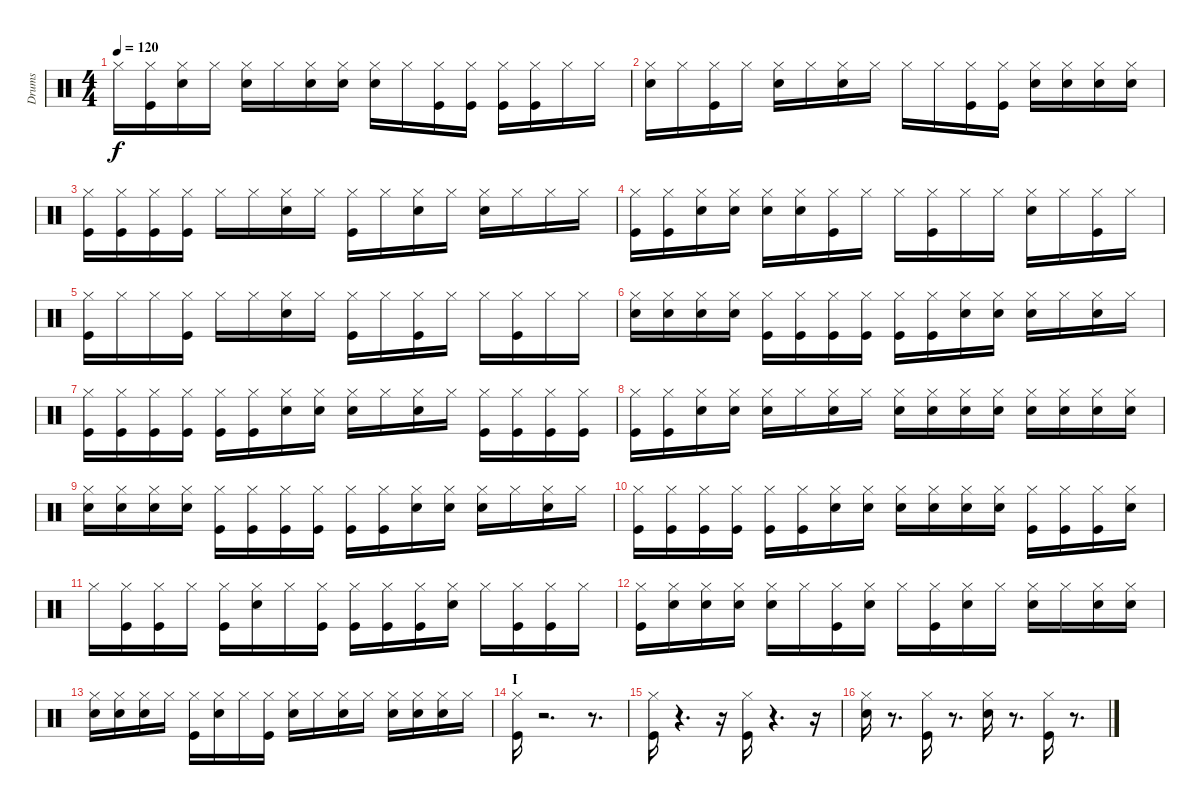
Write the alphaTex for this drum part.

\track ("Drums" "Drums") {instrument percussion}
\staff {score}
\articulation defaults
\ts (4 4)
\tempo 120
\clef neutral
\ks c "Hi-Hat (closed)".16{dy f}
("Kick (hit)" "Hi-Hat (closed)").16 ("Snare (hit) 2" "Hi-Hat (closed)").16 "Hi-Hat (closed)".16 ("Snare (hit) 2" "Hi-Hat (closed)").16 "Hi-Hat (closed)".16 ("Snare (hit) 2" "Hi-Hat (closed)").16 ("Snare (hit) 2" "Hi-Hat (closed)").16 ("Snare (hit) 2" "Hi-Hat (closed)").16 "Hi-Hat (closed)".16 ("Kick (hit)" "Hi-Hat (closed)").16 ("Kick (hit)" "Hi-Hat (closed)").16 ("Kick (hit)" "Hi-Hat (closed)").16 ("Kick (hit)" "Hi-Hat (closed)").16 "Hi-Hat (closed)".16 "Hi-Hat (closed)".16 |
("Snare (hit) 2" "Hi-Hat (closed)").16 "Hi-Hat (closed)".16 ("Kick (hit)" "Hi-Hat (closed)").16 "Hi-Hat (closed)".16 ("Snare (hit) 2" "Hi-Hat (closed)").16 "Hi-Hat (closed)".16 ("Snare (hit) 2" "Hi-Hat (closed)").16 "Hi-Hat (closed)".16 "Hi-Hat (closed)".16 "Hi-Hat (closed)".16 ("Kick (hit)" "Hi-Hat (closed)").16 ("Kick (hit)" "Hi-Hat (closed)").16 ("Snare (hit) 2" "Hi-Hat (closed)").16 ("Snare (hit) 2" "Hi-Hat (closed)").16 ("Snare (hit) 2" "Hi-Hat (closed)").16 ("Snare (hit) 2" "Hi-Hat (closed)").16 |
("Kick (hit)" "Hi-Hat (closed)").16 ("Kick (hit)" "Hi-Hat (closed)").16 ("Kick (hit)" "Hi-Hat (closed)").16 ("Kick (hit)" "Hi-Hat (closed)").16 "Hi-Hat (closed)".16 "Hi-Hat (closed)".16 ("Snare (hit) 2" "Hi-Hat (closed)").16 "Hi-Hat (closed)".16 ("Kick (hit)" "Hi-Hat (closed)").16 "Hi-Hat (closed)".16 ("Snare (hit) 2" "Hi-Hat (closed)").16 "Hi-Hat (closed)".16 ("Snare (hit) 2" "Hi-Hat (closed)").16 "Hi-Hat (closed)".16 "Hi-Hat (closed)".16 "Hi-Hat (closed)".16 |
("Kick (hit)" "Hi-Hat (closed)").16 ("Kick (hit)" "Hi-Hat (closed)").16 ("Snare (hit) 2" "Hi-Hat (closed)").16 ("Snare (hit) 2" "Hi-Hat (closed)").16 ("Snare (hit) 2" "Hi-Hat (closed)").16 ("Snare (hit) 2" "Hi-Hat (closed)").16 ("Hi-Hat (closed)" "Kick (hit)").16 "Hi-Hat (closed)".16 "Hi-Hat (closed)".16 ("Kick (hit)" "Hi-Hat (closed)").16 "Hi-Hat (closed)".16 "Hi-Hat (closed)".16 ("Snare (hit) 2" "Hi-Hat (closed)").16 "Hi-Hat (closed)".16 ("Kick (hit)" "Hi-Hat (closed)").16 "Hi-Hat (closed)".16 |
("Hi-Hat (closed)" "Kick (hit)").16 "Hi-Hat (closed)".16 "Hi-Hat (closed)".16 ("Kick (hit)" "Hi-Hat (closed)").16 "Hi-Hat (closed)".16 "Hi-Hat (closed)".16 ("Snare (hit) 2" "Hi-Hat (closed)").16 "Hi-Hat (closed)".16 ("Kick (hit)" "Hi-Hat (closed)").16 "Hi-Hat (closed)".16 ("Hi-Hat (closed)" "Kick (hit)").16 "Hi-Hat (closed)".16 "Hi-Hat (closed)".16 ("Kick (hit)" "Hi-Hat (closed)").16 "Hi-Hat (closed)".16 "Hi-Hat (closed)".16 |
("Hi-Hat (closed)" "Snare (hit) 2").16 ("Hi-Hat (closed)" "Snare (hit) 2").16 ("Hi-Hat (closed)" "Snare (hit) 2").16 ("Hi-Hat (closed)" "Snare (hit) 2").16 ("Hi-Hat (closed)" "Kick (hit)").16 ("Kick (hit)" "Hi-Hat (closed)").16 ("Kick (hit)" "Hi-Hat (closed)").16 ("Kick (hit)" "Hi-Hat (closed)").16 ("Kick (hit)" "Hi-Hat (closed)").16 ("Kick (hit)" "Hi-Hat (closed)").16 ("Snare (hit) 2" "Hi-Hat (closed)").16 ("Snare (hit) 2" "Hi-Hat (closed)").16 ("Snare (hit) 2" "Hi-Hat (closed)").16 "Hi-Hat (closed)".16 ("Snare (hit) 2" "Hi-Hat (closed)").16 "Hi-Hat (closed)".16 |
("Hi-Hat (closed)" "Kick (hit)").16 ("Kick (hit)" "Hi-Hat (closed)").16 ("Kick (hit)" "Hi-Hat (closed)").16 ("Kick (hit)" "Hi-Hat (closed)").16 ("Kick (hit)" "Hi-Hat (closed)").16 ("Kick (hit)" "Hi-Hat (closed)").16 ("Snare (hit) 2" "Hi-Hat (closed)").16 ("Snare (hit) 2" "Hi-Hat (closed)").16 ("Snare (hit) 2" "Hi-Hat (closed)").16 "Hi-Hat (closed)".16 ("Snare (hit) 2" "Hi-Hat (closed)").16 "Hi-Hat (closed)".16 ("Hi-Hat (closed)" "Kick (hit)").16 ("Kick (hit)" "Hi-Hat (closed)").16 ("Kick (hit)" "Hi-Hat (closed)").16 ("Kick (hit)" "Hi-Hat (closed)").16 |
("Kick (hit)" "Hi-Hat (closed)").16 ("Kick (hit)" "Hi-Hat (closed)").16 ("Snare (hit) 2" "Hi-Hat (closed)").16 ("Snare (hit) 2" "Hi-Hat (closed)").16 ("Snare (hit) 2" "Hi-Hat (closed)").16 "Hi-Hat (closed)".16 ("Snare (hit) 2" "Hi-Hat (closed)").16 "Hi-Hat (closed)".16 ("Hi-Hat (closed)" "Snare (hit) 2").16 ("Hi-Hat (closed)" "Snare (hit) 2").16 ("Hi-Hat (closed)" "Snare (hit) 2").16 ("Hi-Hat (closed)" "Snare (hit) 2").16 ("Hi-Hat (closed)" "Snare (hit) 2").16 ("Hi-Hat (closed)" "Snare (hit) 2").16 ("Hi-Hat (closed)" "Snare (hit) 2").16 ("Hi-Hat (closed)" "Snare (hit) 2").16 |
("Hi-Hat (closed)" "Snare (hit) 2").16 ("Hi-Hat (closed)" "Snare (hit) 2").16 ("Hi-Hat (closed)" "Snare (hit) 2").16 ("Hi-Hat (closed)" "Snare (hit) 2").16 ("Hi-Hat (closed)" "Kick (hit)").16 ("Kick (hit)" "Hi-Hat (closed)").16 ("Kick (hit)" "Hi-Hat (closed)").16 ("Kick (hit)" "Hi-Hat (closed)").16 ("Kick (hit)" "Hi-Hat (closed)").16 ("Kick (hit)" "Hi-Hat (closed)").16 ("Snare (hit) 2" "Hi-Hat (closed)").16 ("Snare (hit) 2" "Hi-Hat (closed)").16 ("Snare (hit) 2" "Hi-Hat (closed)").16 "Hi-Hat (closed)".16 ("Snare (hit) 2" "Hi-Hat (closed)").16 "Hi-Hat (closed)".16 |
("Hi-Hat (closed)" "Kick (hit)").16 ("Kick (hit)" "Hi-Hat (closed)").16 ("Kick (hit)" "Hi-Hat (closed)").16 ("Kick (hit)" "Hi-Hat (closed)").16 ("Kick (hit)" "Hi-Hat (closed)").16 ("Kick (hit)" "Hi-Hat (closed)").16 ("Hi-Hat (closed)" "Snare (hit) 2").16 ("Hi-Hat (closed)" "Snare (hit) 2").16 ("Hi-Hat (closed)" "Snare (hit) 2").16 ("Hi-Hat (closed)" "Snare (hit) 2").16 ("Hi-Hat (closed)" "Snare (hit) 2").16 ("Hi-Hat (closed)" "Snare (hit) 2").16 ("Hi-Hat (closed)" "Kick (hit)").16 ("Kick (hit)" "Hi-Hat (closed)").16 ("Kick (hit)" "Hi-Hat (closed)").16 ("Snare (hit) 2" "Hi-Hat (closed)").16 |
"Hi-Hat (closed)".16 ("Kick (hit)" "Hi-Hat (closed)").16 ("Kick (hit)" "Hi-Hat (closed)").16 "Hi-Hat (closed)".16 ("Kick (hit)" "Hi-Hat (closed)").16 ("Snare (hit) 2" "Hi-Hat (closed)").16 "Hi-Hat (closed)".16 ("Kick (hit)" "Hi-Hat (closed)").16 ("Hi-Hat (closed)" "Kick (hit)").16 ("Kick (hit)" "Hi-Hat (closed)").16 ("Kick (hit)" "Hi-Hat (closed)").16 ("Snare (hit) 2" "Hi-Hat (closed)").16 "Hi-Hat (closed)".16 ("Kick (hit)" "Hi-Hat (closed)").16 ("Kick (hit)" "Hi-Hat (closed)").16 "Hi-Hat (closed)".16 |
("Kick (hit)" "Hi-Hat (closed)").16 ("Hi-Hat (closed)" "Snare (hit) 2").16 ("Hi-Hat (closed)" "Snare (hit) 2").16 ("Hi-Hat (closed)" "Snare (hit) 2").16 ("Snare (hit) 2" "Hi-Hat (closed)").16 "Hi-Hat (closed)".16 ("Kick (hit)" "Hi-Hat (closed)").16 ("Snare (hit) 2" "Hi-Hat (closed)").16 "Hi-Hat (closed)".16 ("Kick (hit)" "Hi-Hat (closed)").16 ("Snare (hit) 2" "Hi-Hat (closed)").16 "Hi-Hat (closed)".16 ("Snare (hit) 2" "Hi-Hat (closed)").16 "Hi-Hat (closed)".16 ("Snare (hit) 2" "Hi-Hat (closed)").16 ("Snare (hit) 2" "Hi-Hat (closed)").16 |
("Snare (hit) 2" "Hi-Hat (closed)").16 ("Snare (hit) 2" "Hi-Hat (closed)").16 ("Snare (hit) 2" "Hi-Hat (closed)").16 "Hi-Hat (closed)".16 ("Kick (hit)" "Hi-Hat (closed)").16 ("Snare (hit) 2" "Hi-Hat (closed)").16 "Hi-Hat (closed)".16 ("Kick (hit)" "Hi-Hat (closed)").16 ("Snare (hit) 2" "Hi-Hat (closed)").16 "Hi-Hat (closed)".16 ("Snare (hit) 2" "Hi-Hat (closed)").16 "Hi-Hat (closed)".16 ("Snare (hit) 2" "Hi-Hat (closed)").16 ("Snare (hit) 2" "Hi-Hat (closed)").16 ("Snare (hit) 2" "Hi-Hat (closed)").16 "Hi-Hat (closed)".16 |
\section ("" "I")
("Hi-Hat (closed)" "Kick (hit)").16 r.2{d} r.8{d} |
("Hi-Hat (closed)" "Kick (hit)").16 r.4{d} r.16 ("Hi-Hat (closed)" "Kick (hit)").16 r.4{d} r.16 |
("Hi-Hat (closed)" "Snare (hit) 2").16 r.8{d} ("Hi-Hat (closed)" "Kick (hit)").16 r.8{d} ("Hi-Hat (closed)" "Snare (hit) 2").16 r.8{d} ("Hi-Hat (closed)" "Kick (hit)").16 r.8{d}
